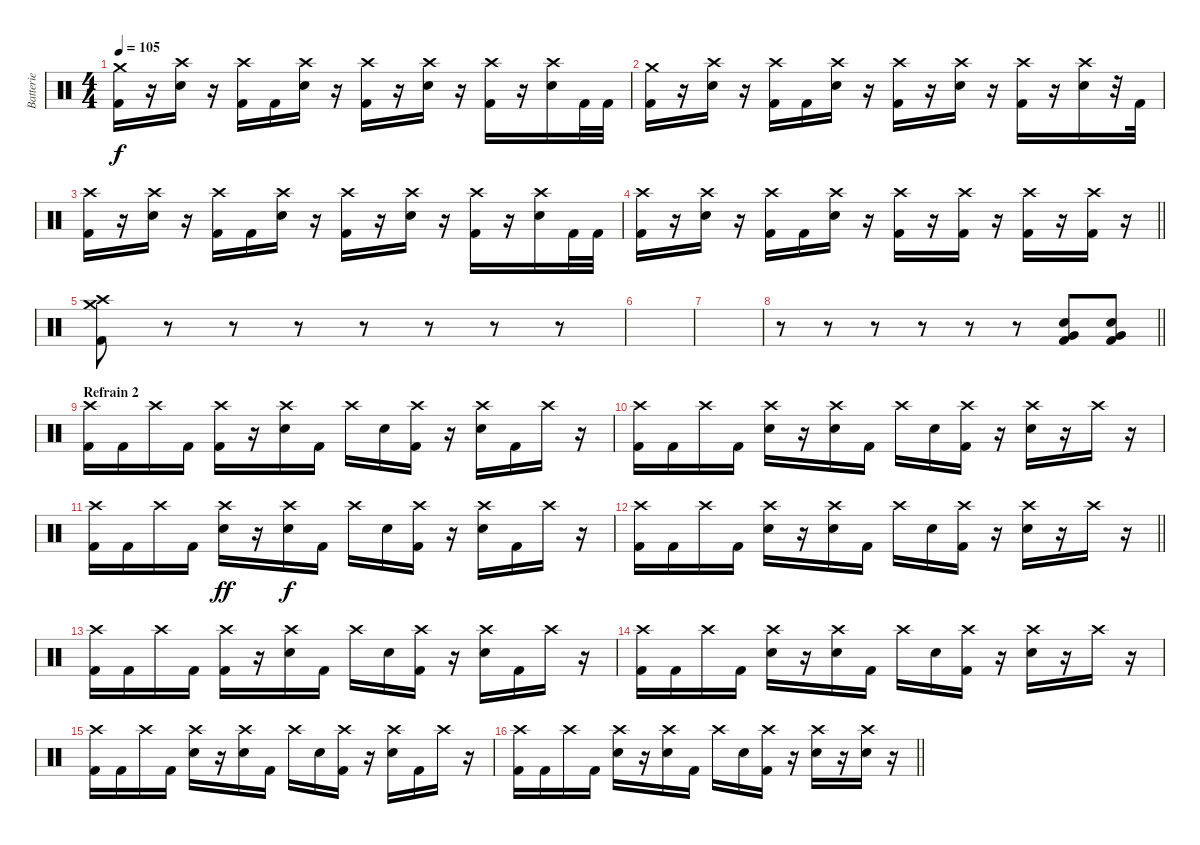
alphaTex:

\track ("Batterie" "Batterie") {instrument percussion}
\staff {score}
\articulation defaults
\ts (4 4)
\tempo 105
\clef neutral
\ks c
("Kick (hit) 2" "Crash medium (hit)").16{dy f} r.16 ("Electric Snare (hit)" "Crash high (hit)").16 r.16 ("Kick (hit) 2" "Crash high (hit)").16 "Kick (hit) 2".16 ("Electric Snare (hit)" "Crash high (hit)").16 r.16 ("Kick (hit) 2" "Crash high (hit)").16 r.16 ("Electric Snare (hit)" "Crash high (hit)").16 r.16 ("Kick (hit) 2" "Crash high (hit)").16 r.16 ("Electric Snare (hit)" "Crash high (hit)").16 "Kick (hit) 2".32 "Kick (hit) 2".32 |
("Kick (hit) 2" "Crash medium (hit)").16 r.16 ("Electric Snare (hit)" "Crash high (hit)").16 r.16 ("Kick (hit) 2" "Crash high (hit)").16 "Kick (hit) 2".16 ("Electric Snare (hit)" "Crash high (hit)").16 r.16 ("Kick (hit) 2" "Crash high (hit)").16 r.16 ("Electric Snare (hit)" "Crash high (hit)").16 r.16 ("Kick (hit) 2" "Crash high (hit)").16 r.16 ("Electric Snare (hit)" "Crash high (hit)").16 r.32 "Kick (hit) 2".32 |
("Kick (hit) 2" "Crash high (hit)").16 r.16 ("Electric Snare (hit)" "Crash high (hit)").16 r.16 ("Kick (hit) 2" "Crash high (hit)").16 "Kick (hit) 2".16 ("Electric Snare (hit)" "Crash high (hit)").16 r.16 ("Kick (hit) 2" "Crash high (hit)").16 r.16 ("Electric Snare (hit)" "Crash high (hit)").16 r.16 ("Kick (hit) 2" "Crash high (hit)").16 r.16 ("Electric Snare (hit)" "Crash high (hit)").16 "Kick (hit) 2".32 "Kick (hit) 2".32 |
\barLineRight lightlight
("Kick (hit) 2" "Crash high (hit)").16 r.16 ("Electric Snare (hit)" "Crash high (hit)").16 r.16 ("Kick (hit) 2" "Crash high (hit)").16 "Kick (hit) 2".16 ("Electric Snare (hit)" "Crash high (hit)").16 r.16 ("Kick (hit) 2" "Crash high (hit)").16 r.16 ("Kick (hit) 2" "Crash high (hit)").16 r.16 ("Kick (hit) 2" "Crash high (hit)").16 r.16 ("Kick (hit) 2" "Crash high (hit)").16 r.16 |
("Kick (hit) 2" "Crash high (hit)" "Crash medium (hit)").8 r.8 r.8 r.8 r.8 r.8 r.8 r.8 |
|
|
\barLineRight lightlight
r.8 r.8 r.8 r.8 r.8 r.8 ("Kick (hit) 2" "Electric Snare (hit)" "Very Low Tom (hit)").8 ("Kick (hit) 2" "Electric Snare (hit)" "Very Low Tom (hit)").8 |
\section ("" "Refrain 2")
("Kick (hit) 2" "Crash high (hit)").16 "Kick (hit) 2".16 "Crash high (hit)".16 "Kick (hit) 2".16 ("Kick (hit) 2" "Crash high (hit)").16 r.16 ("Electric Snare (hit)" "Crash high (hit)").16 "Kick (hit) 2".16 "Crash high (hit)".16 "Electric Snare (hit)".16 ("Kick (hit) 2" "Crash high (hit)").16 r.16 ("Electric Snare (hit)" "Crash high (hit)").16 "Kick (hit) 2".16 "Crash high (hit)".16 r.16 |
("Kick (hit) 2" "Crash high (hit)").16 "Kick (hit) 2".16 "Crash high (hit)".16 "Kick (hit) 2".16 ("Electric Snare (hit)" "Crash high (hit)").16 r.16 ("Electric Snare (hit)" "Crash high (hit)").16 "Kick (hit) 2".16 "Crash high (hit)".16 "Electric Snare (hit)".16 ("Kick (hit) 2" "Crash high (hit)").16 r.16 ("Electric Snare (hit)" "Crash high (hit)").16 r.16 "Crash high (hit)".16 r.16 |
("Kick (hit) 2" "Crash high (hit)").16 "Kick (hit) 2".16 "Crash high (hit)".16 "Kick (hit) 2".16 ("Electric Snare (hit)" "Crash high (hit)").16{dy ff} r.16 ("Electric Snare (hit)" "Crash high (hit)").16{dy f} "Kick (hit) 2".16 "Crash high (hit)".16 "Electric Snare (hit)".16 ("Kick (hit) 2" "Crash high (hit)").16 r.16 ("Electric Snare (hit)" "Crash high (hit)").16 "Kick (hit) 2".16 "Crash high (hit)".16 r.16 |
\barLineRight lightlight
("Kick (hit) 2" "Crash high (hit)").16 "Kick (hit) 2".16 "Crash high (hit)".16 "Kick (hit) 2".16 ("Electric Snare (hit)" "Crash high (hit)").16 r.16 ("Electric Snare (hit)" "Crash high (hit)").16 "Kick (hit) 2".16 "Crash high (hit)".16 "Electric Snare (hit)".16 ("Kick (hit) 2" "Crash high (hit)").16 r.16 ("Electric Snare (hit)" "Crash high (hit)").16 r.16 "Crash high (hit)".16 r.16 |
("Kick (hit) 2" "Crash high (hit)").16 "Kick (hit) 2".16 "Crash high (hit)".16 "Kick (hit) 2".16 ("Kick (hit) 2" "Crash high (hit)").16 r.16 ("Electric Snare (hit)" "Crash high (hit)").16 "Kick (hit) 2".16 "Crash high (hit)".16 "Electric Snare (hit)".16 ("Kick (hit) 2" "Crash high (hit)").16 r.16 ("Electric Snare (hit)" "Crash high (hit)").16 "Kick (hit) 2".16 "Crash high (hit)".16 r.16 |
("Kick (hit) 2" "Crash high (hit)").16 "Kick (hit) 2".16 "Crash high (hit)".16 "Kick (hit) 2".16 ("Electric Snare (hit)" "Crash high (hit)").16 r.16 ("Electric Snare (hit)" "Crash high (hit)").16 "Kick (hit) 2".16 "Crash high (hit)".16 "Electric Snare (hit)".16 ("Kick (hit) 2" "Crash high (hit)").16 r.16 ("Electric Snare (hit)" "Crash high (hit)").16 r.16 "Crash high (hit)".16 r.16 |
("Kick (hit) 2" "Crash high (hit)").16 "Kick (hit) 2".16 "Crash high (hit)".16 "Kick (hit) 2".16 ("Electric Snare (hit)" "Crash high (hit)").16 r.16 ("Electric Snare (hit)" "Crash high (hit)").16 "Kick (hit) 2".16 "Crash high (hit)".16 "Electric Snare (hit)".16 ("Kick (hit) 2" "Crash high (hit)").16 r.16 ("Electric Snare (hit)" "Crash high (hit)").16 "Kick (hit) 2".16 "Crash high (hit)".16 r.16 |
\barLineRight lightlight
("Kick (hit) 2" "Crash high (hit)").16 "Kick (hit) 2".16 "Crash high (hit)".16 "Kick (hit) 2".16 ("Electric Snare (hit)" "Crash high (hit)").16 r.16 ("Electric Snare (hit)" "Crash high (hit)").16 "Kick (hit) 2".16 "Crash high (hit)".16 "Electric Snare (hit)".16 ("Kick (hit) 2" "Crash high (hit)").16 r.16 ("Electric Snare (hit)" "Crash high (hit)").16 r.16 ("Electric Snare (hit)" "Crash high (hit)").16 r.16
